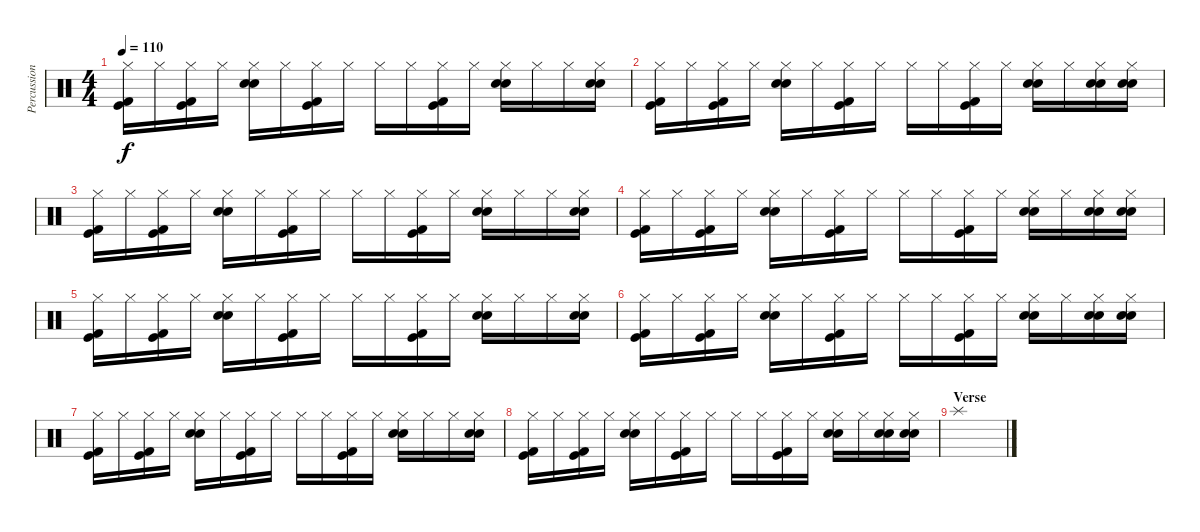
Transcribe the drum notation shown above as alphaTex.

\track ("Percussion" "Percussion") {instrument percussion}
\staff {score}
\articulation defaults
\ts (4 4)
\tempo 110
\clef neutral
\ks c
("Hi-Hat (closed)" "Kick (hit) 2" "Kick (hit)").16{dy f} "Hi-Hat (closed)".16 ("Hi-Hat (closed)" "Kick (hit) 2" "Kick (hit)").16 "Hi-Hat (closed)".16 ("Hi-Hat (closed)" "Electric Snare (hit)" "Snare (hit) 2").16 "Hi-Hat (closed)".16 ("Hi-Hat (closed)" "Kick (hit) 2" "Kick (hit)").16 "Hi-Hat (closed)".16 "Hi-Hat (closed)".16 "Hi-Hat (closed)".16 ("Hi-Hat (closed)" "Kick (hit) 2" "Kick (hit)").16 "Hi-Hat (closed)".16 ("Hi-Hat (closed)" "Electric Snare (hit)" "Snare (hit) 2").16 "Hi-Hat (closed)".16 "Hi-Hat (closed)".16 ("Hi-Hat (closed)" "Electric Snare (hit)" "Snare (hit) 2").16 |
("Hi-Hat (closed)" "Kick (hit) 2" "Kick (hit)").16 "Hi-Hat (closed)".16 ("Hi-Hat (closed)" "Kick (hit) 2" "Kick (hit)").16 "Hi-Hat (closed)".16 ("Hi-Hat (closed)" "Electric Snare (hit)" "Snare (hit) 2").16 "Hi-Hat (closed)".16 ("Hi-Hat (closed)" "Kick (hit) 2" "Kick (hit)").16 "Hi-Hat (closed)".16 "Hi-Hat (closed)".16 "Hi-Hat (closed)".16 ("Hi-Hat (closed)" "Kick (hit) 2" "Kick (hit)").16 "Hi-Hat (closed)".16 ("Hi-Hat (closed)" "Electric Snare (hit)" "Snare (hit) 2").16 "Hi-Hat (closed)".16 ("Hi-Hat (closed)" "Electric Snare (hit)" "Snare (hit) 2").16 ("Hi-Hat (closed)" "Electric Snare (hit)" "Snare (hit) 2").16 |
("Hi-Hat (closed)" "Kick (hit) 2" "Kick (hit)").16 "Hi-Hat (closed)".16 ("Hi-Hat (closed)" "Kick (hit) 2" "Kick (hit)").16 "Hi-Hat (closed)".16 ("Hi-Hat (closed)" "Electric Snare (hit)" "Snare (hit) 2").16 "Hi-Hat (closed)".16 ("Hi-Hat (closed)" "Kick (hit) 2" "Kick (hit)").16 "Hi-Hat (closed)".16 "Hi-Hat (closed)".16 "Hi-Hat (closed)".16 ("Hi-Hat (closed)" "Kick (hit) 2" "Kick (hit)").16 "Hi-Hat (closed)".16 ("Hi-Hat (closed)" "Electric Snare (hit)" "Snare (hit) 2").16 "Hi-Hat (closed)".16 "Hi-Hat (closed)".16 ("Hi-Hat (closed)" "Electric Snare (hit)" "Snare (hit) 2").16 |
("Hi-Hat (closed)" "Kick (hit) 2" "Kick (hit)").16 "Hi-Hat (closed)".16 ("Hi-Hat (closed)" "Kick (hit) 2" "Kick (hit)").16 "Hi-Hat (closed)".16 ("Hi-Hat (closed)" "Electric Snare (hit)" "Snare (hit) 2").16 "Hi-Hat (closed)".16 ("Hi-Hat (closed)" "Kick (hit) 2" "Kick (hit)").16 "Hi-Hat (closed)".16 "Hi-Hat (closed)".16 "Hi-Hat (closed)".16 ("Hi-Hat (closed)" "Kick (hit) 2" "Kick (hit)").16 "Hi-Hat (closed)".16 ("Hi-Hat (closed)" "Electric Snare (hit)" "Snare (hit) 2").16 "Hi-Hat (closed)".16 ("Hi-Hat (closed)" "Electric Snare (hit)" "Snare (hit) 2").16 ("Hi-Hat (closed)" "Electric Snare (hit)" "Snare (hit) 2").16 |
("Hi-Hat (closed)" "Kick (hit) 2" "Kick (hit)").16 "Hi-Hat (closed)".16 ("Hi-Hat (closed)" "Kick (hit) 2" "Kick (hit)").16 "Hi-Hat (closed)".16 ("Hi-Hat (closed)" "Electric Snare (hit)" "Snare (hit) 2").16 "Hi-Hat (closed)".16 ("Hi-Hat (closed)" "Kick (hit) 2" "Kick (hit)").16 "Hi-Hat (closed)".16 "Hi-Hat (closed)".16 "Hi-Hat (closed)".16 ("Hi-Hat (closed)" "Kick (hit) 2" "Kick (hit)").16 "Hi-Hat (closed)".16 ("Hi-Hat (closed)" "Electric Snare (hit)" "Snare (hit) 2").16 "Hi-Hat (closed)".16 "Hi-Hat (closed)".16 ("Hi-Hat (closed)" "Electric Snare (hit)" "Snare (hit) 2").16 |
("Hi-Hat (closed)" "Kick (hit) 2" "Kick (hit)").16 "Hi-Hat (closed)".16 ("Hi-Hat (closed)" "Kick (hit) 2" "Kick (hit)").16 "Hi-Hat (closed)".16 ("Hi-Hat (closed)" "Electric Snare (hit)" "Snare (hit) 2").16 "Hi-Hat (closed)".16 ("Hi-Hat (closed)" "Kick (hit) 2" "Kick (hit)").16 "Hi-Hat (closed)".16 "Hi-Hat (closed)".16 "Hi-Hat (closed)".16 ("Hi-Hat (closed)" "Kick (hit) 2" "Kick (hit)").16 "Hi-Hat (closed)".16 ("Hi-Hat (closed)" "Electric Snare (hit)" "Snare (hit) 2").16 "Hi-Hat (closed)".16 ("Hi-Hat (closed)" "Electric Snare (hit)" "Snare (hit) 2").16 ("Hi-Hat (closed)" "Electric Snare (hit)" "Snare (hit) 2").16 |
("Hi-Hat (closed)" "Kick (hit) 2" "Kick (hit)").16 "Hi-Hat (closed)".16 ("Hi-Hat (closed)" "Kick (hit) 2" "Kick (hit)").16 "Hi-Hat (closed)".16 ("Hi-Hat (closed)" "Electric Snare (hit)" "Snare (hit) 2").16 "Hi-Hat (closed)".16 ("Hi-Hat (closed)" "Kick (hit) 2" "Kick (hit)").16 "Hi-Hat (closed)".16 "Hi-Hat (closed)".16 "Hi-Hat (closed)".16 ("Hi-Hat (closed)" "Kick (hit) 2" "Kick (hit)").16 "Hi-Hat (closed)".16 ("Hi-Hat (closed)" "Electric Snare (hit)" "Snare (hit) 2").16 "Hi-Hat (closed)".16 "Hi-Hat (closed)".16 ("Hi-Hat (closed)" "Electric Snare (hit)" "Snare (hit) 2").16 |
("Hi-Hat (closed)" "Kick (hit) 2" "Kick (hit)").16 "Hi-Hat (closed)".16 ("Hi-Hat (closed)" "Kick (hit) 2" "Kick (hit)").16 "Hi-Hat (closed)".16 ("Hi-Hat (closed)" "Electric Snare (hit)" "Snare (hit) 2").16 "Hi-Hat (closed)".16 ("Hi-Hat (closed)" "Kick (hit) 2" "Kick (hit)").16 "Hi-Hat (closed)".16 "Hi-Hat (closed)".16 "Hi-Hat (closed)".16 ("Hi-Hat (closed)" "Kick (hit) 2" "Kick (hit)").16 "Hi-Hat (closed)".16 ("Hi-Hat (closed)" "Electric Snare (hit)" "Snare (hit) 2").16 "Hi-Hat (closed)".16 ("Hi-Hat (closed)" "Electric Snare (hit)" "Snare (hit) 2").16 ("Hi-Hat (closed)" "Electric Snare (hit)" "Snare (hit) 2").16 |
\section ("" "Verse")
"Splash (hit)".1
